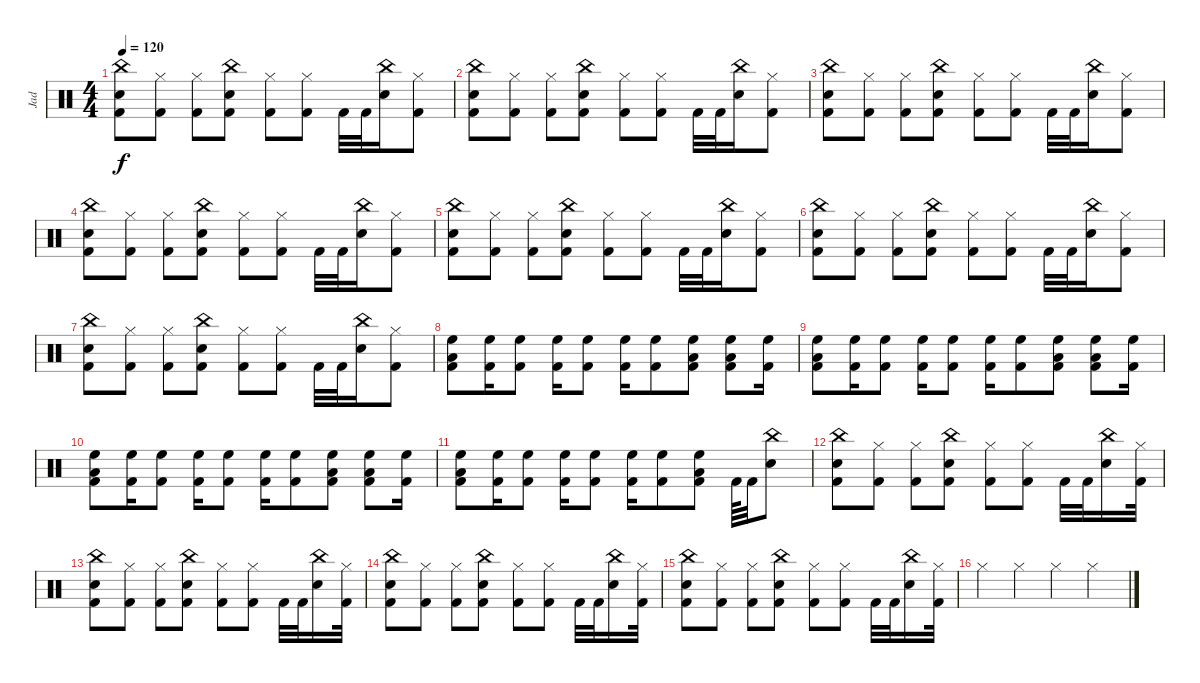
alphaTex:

\track ("Jad" "Jad") {instrument percussion}
\staff {score}
\articulation defaults
\ts (4 4)
\tempo 120
\clef neutral
\ks c
("Electric Snare (hit)" "Kick (hit) 2" "China (hit)").8{dy f} ("Hi-Hat (closed)" "Kick (hit) 2").8 ("Hi-Hat (closed)" "Kick (hit) 2").8 ("Electric Snare (hit)" "Kick (hit) 2" "China (hit)").8 ("Hi-Hat (closed)" "Kick (hit) 2").8 ("Hi-Hat (closed)" "Kick (hit) 2").8 "Kick (hit) 2".32 "Kick (hit) 2".32 ("Electric Snare (hit)" "China (hit)").16 ("Hi-Hat (closed)" "Kick (hit) 2").8 |
("Electric Snare (hit)" "Kick (hit) 2" "China (hit)").8 ("Hi-Hat (closed)" "Kick (hit) 2").8 ("Hi-Hat (closed)" "Kick (hit) 2").8 ("Electric Snare (hit)" "Kick (hit) 2" "China (hit)").8 ("Hi-Hat (closed)" "Kick (hit) 2").8 ("Hi-Hat (closed)" "Kick (hit) 2").8 "Kick (hit) 2".32 "Kick (hit) 2".32 ("Electric Snare (hit)" "China (hit)").16 ("Hi-Hat (closed)" "Kick (hit) 2").8 |
("Electric Snare (hit)" "Kick (hit) 2" "China (hit)").8 ("Hi-Hat (closed)" "Kick (hit) 2").8 ("Hi-Hat (closed)" "Kick (hit) 2").8 ("Electric Snare (hit)" "Kick (hit) 2" "China (hit)").8 ("Hi-Hat (closed)" "Kick (hit) 2").8 ("Hi-Hat (closed)" "Kick (hit) 2").8 "Kick (hit) 2".32 "Kick (hit) 2".32 ("Electric Snare (hit)" "China (hit)").16 ("Hi-Hat (closed)" "Kick (hit) 2").8 |
("Electric Snare (hit)" "Kick (hit) 2" "China (hit)").8 ("Hi-Hat (closed)" "Kick (hit) 2").8 ("Hi-Hat (closed)" "Kick (hit) 2").8 ("Electric Snare (hit)" "Kick (hit) 2" "China (hit)").8 ("Hi-Hat (closed)" "Kick (hit) 2").8 ("Hi-Hat (closed)" "Kick (hit) 2").8 "Kick (hit) 2".32 "Kick (hit) 2".32 ("Electric Snare (hit)" "China (hit)").16 ("Hi-Hat (closed)" "Kick (hit) 2").8 |
("Electric Snare (hit)" "Kick (hit) 2" "China (hit)").8 ("Hi-Hat (closed)" "Kick (hit) 2").8 ("Hi-Hat (closed)" "Kick (hit) 2").8 ("Electric Snare (hit)" "Kick (hit) 2" "China (hit)").8 ("Hi-Hat (closed)" "Kick (hit) 2").8 ("Hi-Hat (closed)" "Kick (hit) 2").8 "Kick (hit) 2".32 "Kick (hit) 2".32 ("Electric Snare (hit)" "China (hit)").16 ("Hi-Hat (closed)" "Kick (hit) 2").8 |
("Electric Snare (hit)" "Kick (hit) 2" "China (hit)").8 ("Hi-Hat (closed)" "Kick (hit) 2").8 ("Hi-Hat (closed)" "Kick (hit) 2").8 ("Electric Snare (hit)" "Kick (hit) 2" "China (hit)").8 ("Hi-Hat (closed)" "Kick (hit) 2").8 ("Hi-Hat (closed)" "Kick (hit) 2").8 "Kick (hit) 2".32 "Kick (hit) 2".32 ("Electric Snare (hit)" "China (hit)").16 ("Hi-Hat (closed)" "Kick (hit) 2").8 |
("Electric Snare (hit)" "Kick (hit) 2" "China (hit)").8 ("Hi-Hat (closed)" "Kick (hit) 2").8 ("Hi-Hat (closed)" "Kick (hit) 2").8 ("Electric Snare (hit)" "Kick (hit) 2" "China (hit)").8 ("Hi-Hat (closed)" "Kick (hit) 2").8 ("Hi-Hat (closed)" "Kick (hit) 2").8 "Kick (hit) 2".32 "Kick (hit) 2".32 ("Electric Snare (hit)" "China (hit)").16 ("Hi-Hat (closed)" "Kick (hit) 2").8 |
("High Floor Tom (hit)" "Low Tom (hit)" "Kick (hit) 2").8 ("High Floor Tom (hit)" "Kick (hit) 2").16 ("High Floor Tom (hit)" "Kick (hit) 2").8 ("High Floor Tom (hit)" "Kick (hit) 2").16 ("High Floor Tom (hit)" "Kick (hit) 2").8 ("High Floor Tom (hit)" "Kick (hit) 2").16 ("High Floor Tom (hit)" "Kick (hit) 2").8 ("High Floor Tom (hit)" "Low Tom (hit)" "Kick (hit) 2").8 ("High Floor Tom (hit)" "Low Tom (hit)" "Kick (hit) 2").8 ("High Floor Tom (hit)" "Kick (hit) 2").16 |
("High Floor Tom (hit)" "Low Tom (hit)" "Kick (hit) 2").8 ("High Floor Tom (hit)" "Kick (hit) 2").16 ("High Floor Tom (hit)" "Kick (hit) 2").8 ("High Floor Tom (hit)" "Kick (hit) 2").16 ("High Floor Tom (hit)" "Kick (hit) 2").8 ("High Floor Tom (hit)" "Kick (hit) 2").16 ("High Floor Tom (hit)" "Kick (hit) 2").8 ("High Floor Tom (hit)" "Low Tom (hit)" "Kick (hit) 2").8 ("High Floor Tom (hit)" "Low Tom (hit)" "Kick (hit) 2").8 ("High Floor Tom (hit)" "Kick (hit) 2").16 |
("High Floor Tom (hit)" "Low Tom (hit)" "Kick (hit) 2").8 ("High Floor Tom (hit)" "Kick (hit) 2").16 ("High Floor Tom (hit)" "Kick (hit) 2").8 ("High Floor Tom (hit)" "Kick (hit) 2").16 ("High Floor Tom (hit)" "Kick (hit) 2").8 ("High Floor Tom (hit)" "Kick (hit) 2").16 ("High Floor Tom (hit)" "Kick (hit) 2").8 ("High Floor Tom (hit)" "Low Tom (hit)" "Kick (hit) 2").8 ("High Floor Tom (hit)" "Low Tom (hit)" "Kick (hit) 2").8 ("High Floor Tom (hit)" "Kick (hit) 2").16 |
("High Floor Tom (hit)" "Low Tom (hit)" "Kick (hit) 2").8 ("High Floor Tom (hit)" "Kick (hit) 2").16 ("High Floor Tom (hit)" "Kick (hit) 2").8 ("High Floor Tom (hit)" "Kick (hit) 2").16 ("High Floor Tom (hit)" "Kick (hit) 2").8 ("High Floor Tom (hit)" "Kick (hit) 2").16 ("High Floor Tom (hit)" "Kick (hit) 2").8 ("High Floor Tom (hit)" "Low Tom (hit)" "Kick (hit) 2").8 "Kick (hit) 2".64 "Kick (hit) 2".32 ("China (hit)" "Electric Snare (hit)").8 |
("Electric Snare (hit)" "Kick (hit) 2" "China (hit)").8 ("Hi-Hat (closed)" "Kick (hit) 2").8 ("Hi-Hat (closed)" "Kick (hit) 2").8 ("Electric Snare (hit)" "Kick (hit) 2" "China (hit)").8 ("Hi-Hat (closed)" "Kick (hit) 2").8 ("Hi-Hat (closed)" "Kick (hit) 2").8 "Kick (hit) 2".32 "Kick (hit) 2".32 ("Electric Snare (hit)" "China (hit)").16 ("Hi-Hat (closed)" "Kick (hit) 2").32 |
("Electric Snare (hit)" "Kick (hit) 2" "China (hit)").8 ("Hi-Hat (closed)" "Kick (hit) 2").8 ("Hi-Hat (closed)" "Kick (hit) 2").8 ("Electric Snare (hit)" "Kick (hit) 2" "China (hit)").8 ("Hi-Hat (closed)" "Kick (hit) 2").8 ("Hi-Hat (closed)" "Kick (hit) 2").8 "Kick (hit) 2".32 "Kick (hit) 2".32 ("Electric Snare (hit)" "China (hit)").16 ("Hi-Hat (closed)" "Kick (hit) 2").32 |
("Electric Snare (hit)" "Kick (hit) 2" "China (hit)").8 ("Hi-Hat (closed)" "Kick (hit) 2").8 ("Hi-Hat (closed)" "Kick (hit) 2").8 ("Electric Snare (hit)" "Kick (hit) 2" "China (hit)").8 ("Hi-Hat (closed)" "Kick (hit) 2").8 ("Hi-Hat (closed)" "Kick (hit) 2").8 "Kick (hit) 2".32 "Kick (hit) 2".32 ("Electric Snare (hit)" "China (hit)").16 ("Hi-Hat (closed)" "Kick (hit) 2").32 |
("Electric Snare (hit)" "Kick (hit) 2" "China (hit)").8 ("Hi-Hat (closed)" "Kick (hit) 2").8 ("Hi-Hat (closed)" "Kick (hit) 2").8 ("Electric Snare (hit)" "Kick (hit) 2" "China (hit)").8 ("Hi-Hat (closed)" "Kick (hit) 2").8 ("Hi-Hat (closed)" "Kick (hit) 2").8 "Kick (hit) 2".32 "Kick (hit) 2".32 ("Electric Snare (hit)" "China (hit)").16 ("Hi-Hat (closed)" "Kick (hit) 2").32 |
"Hi-Hat (closed)".4 "Hi-Hat (closed)".4 "Hi-Hat (closed)".4 "Hi-Hat (closed)".4
